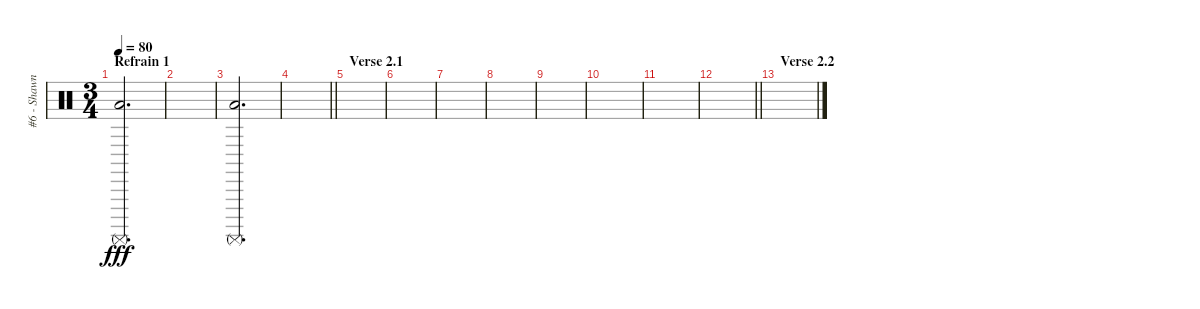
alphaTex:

\track ("#6 - Shawn Crahan" "#6 - Shawn") {instrument percussion}
\staff {score}
\articulation defaults
\ts (3 4)
\section ("" "Refrain 1")
\tempo 80
\clef neutral
\ks c
("Low Floor Tom (hit)" "Surdo (mute)").2{d dy fff volume 16} |
|
("Low Floor Tom (hit)" "Surdo (mute)").2{d} |
\barLineRight lightlight
|
\section ("" "Verse 2.1")
|
|
|
|
|
|
|
\barLineRight lightlight
|
\section ("" "Verse 2.2")
